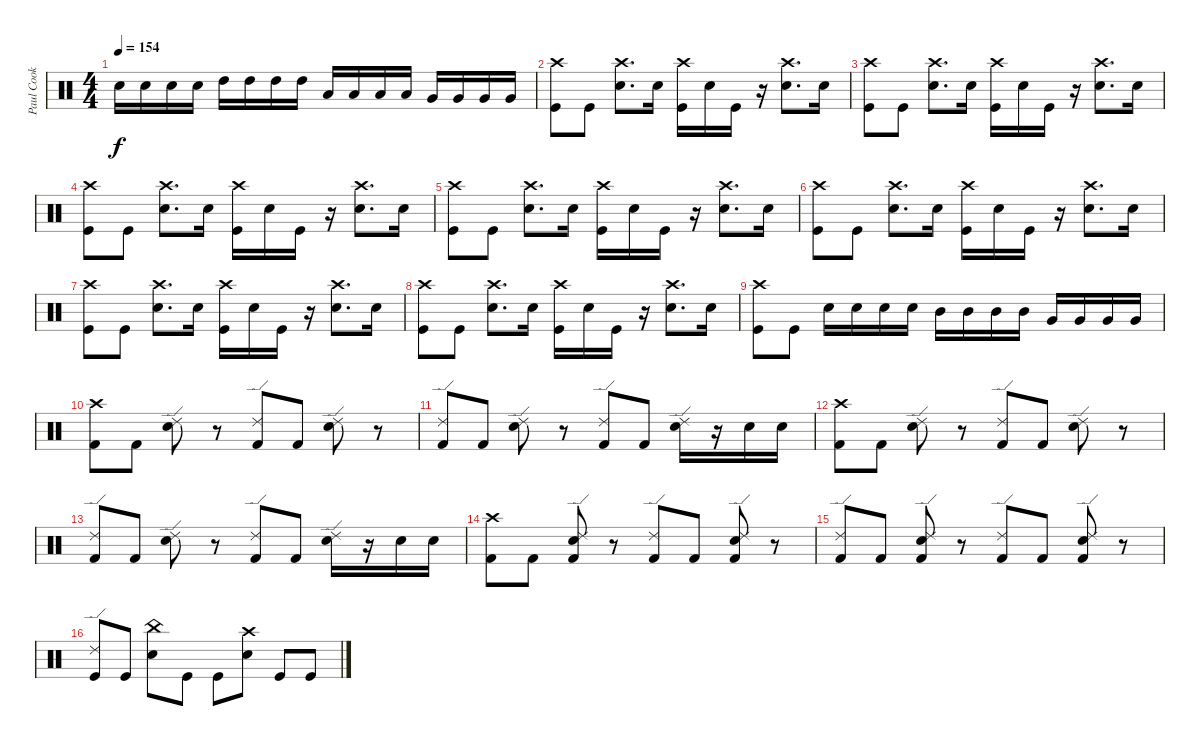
\track ("Paul Cook" "Paul Cook") {instrument percussion}
\staff {score}
\articulation defaults
\ts (4 4)
\tempo 154
\clef neutral
\ks c "Snare (hit) 2".16{dy f} "Snare (hit) 2".16 "Snare (hit) 2".16 "Snare (hit) 2".16 "High Tom (hit)".16 "High Tom (hit)".16 "High Tom (hit)".16 "High Tom (hit)".16 "Low Tom (hit)".16 "Low Tom (hit)".16 "Low Tom (hit)".16 "Low Tom (hit)".16 "Very Low Tom (hit)".16 "Very Low Tom (hit)".16 "Very Low Tom (hit)".16 "Very Low Tom (hit)".16
|
("Crash high (hit)" "Kick (hit)").8 "Kick (hit)".8 ("Crash high (hit)" "Snare (hit) 2").8{d} "Snare (hit) 2".16 ("Crash high (hit)" "Kick (hit)").16 "Snare (hit) 2".16 "Kick (hit)".16 r.16 ("Crash high (hit)" "Snare (hit) 2").8{d} "Snare (hit) 2".16 |
("Crash high (hit)" "Kick (hit)").8 "Kick (hit)".8 ("Crash high (hit)" "Snare (hit) 2").8{d} "Snare (hit) 2".16 ("Crash high (hit)" "Kick (hit)").16 "Snare (hit) 2".16 "Kick (hit)".16 r.16 ("Crash high (hit)" "Snare (hit) 2").8{d} "Snare (hit) 2".16 |
("Crash high (hit)" "Kick (hit)").8 "Kick (hit)".8 ("Crash high (hit)" "Snare (hit) 2").8{d} "Snare (hit) 2".16 ("Crash high (hit)" "Kick (hit)").16 "Snare (hit) 2".16 "Kick (hit)".16 r.16 ("Crash high (hit)" "Snare (hit) 2").8{d} "Snare (hit) 2".16 |
("Crash high (hit)" "Kick (hit)").8 "Kick (hit)".8 ("Crash high (hit)" "Snare (hit) 2").8{d} "Snare (hit) 2".16 ("Crash high (hit)" "Kick (hit)").16 "Snare (hit) 2".16 "Kick (hit)".16 r.16 ("Crash high (hit)" "Snare (hit) 2").8{d} "Snare (hit) 2".16 |
("Crash high (hit)" "Kick (hit)").8 "Kick (hit)".8 ("Crash high (hit)" "Snare (hit) 2").8{d} "Snare (hit) 2".16 ("Crash high (hit)" "Kick (hit)").16 "Snare (hit) 2".16 "Kick (hit)".16 r.16 ("Crash high (hit)" "Snare (hit) 2").8{d} "Snare (hit) 2".16 |
("Crash high (hit)" "Kick (hit)").8 "Kick (hit)".8 ("Crash high (hit)" "Snare (hit) 2").8{d} "Snare (hit) 2".16 ("Crash high (hit)" "Kick (hit)").16 "Snare (hit) 2".16 "Kick (hit)".16 r.16 ("Crash high (hit)" "Snare (hit) 2").8{d} "Snare (hit) 2".16 |
("Crash high (hit)" "Kick (hit)").8 "Kick (hit)".8 ("Crash high (hit)" "Snare (hit) 2").8{d} "Snare (hit) 2".16 ("Crash high (hit)" "Kick (hit)").16 "Snare (hit) 2".16 "Kick (hit)".16 r.16 ("Crash high (hit)" "Snare (hit) 2").8{d} "Snare (hit) 2".16 |
("Crash high (hit)" "Kick (hit)").8 "Kick (hit)".8 "Snare (hit) 2".16 "Snare (hit) 2".16 "Snare (hit) 2".16 "Snare (hit) 2".16 "Mid Tom (hit)".16 "Mid Tom (hit)".16 "Mid Tom (hit)".16 "Mid Tom (hit)".16 "Very Low Tom (hit)".16 "Very Low Tom (hit)".16 "Very Low Tom (hit)".16 "Very Low Tom (hit)".16 |
("Crash high (hit)" "Kick (hit) 2").8 "Kick (hit) 2".8 ("Ride (edge) 2" "Electric Snare (hit)").8 r.8 ("Ride (edge) 2" "Kick (hit) 2").8 "Kick (hit) 2".8 ("Ride (edge) 2" "Electric Snare (hit)").8 r.8 |
("Ride (edge) 2" "Kick (hit) 2").8 "Kick (hit) 2".8 ("Ride (edge) 2" "Electric Snare (hit)").8 r.8 ("Ride (edge) 2" "Kick (hit) 2").8 "Kick (hit) 2".8 ("Ride (edge) 2" "Electric Snare (hit)").16 r.16 "Snare (hit) 2".16 "Snare (hit) 2".16 |
("Crash high (hit)" "Kick (hit) 2").8 "Kick (hit) 2".8 ("Ride (edge) 2" "Electric Snare (hit)").8 r.8 ("Ride (edge) 2" "Kick (hit) 2").8 "Kick (hit) 2".8 ("Ride (edge) 2" "Electric Snare (hit)").8 r.8 |
("Ride (edge) 2" "Kick (hit) 2").8 "Kick (hit) 2".8 ("Ride (edge) 2" "Electric Snare (hit)").8 r.8 ("Ride (edge) 2" "Kick (hit) 2").8 "Kick (hit) 2".8 ("Ride (edge) 2" "Electric Snare (hit)").16 r.16 "Snare (hit) 2".16 "Snare (hit) 2".16 |
("Crash high (hit)" "Kick (hit) 2").8 "Kick (hit) 2".8 ("Ride (edge) 2" "Electric Snare (hit)" "Kick (hit) 2").8 r.8 ("Ride (edge) 2" "Kick (hit) 2").8 "Kick (hit) 2".8 ("Ride (edge) 2" "Electric Snare (hit)" "Kick (hit) 2").8 r.8 |
("Ride (edge) 2" "Kick (hit) 2").8 "Kick (hit) 2".8 ("Ride (edge) 2" "Electric Snare (hit)" "Kick (hit) 2").8 r.8 ("Ride (edge) 2" "Kick (hit) 2").8 "Kick (hit) 2".8 ("Ride (edge) 2" "Electric Snare (hit)" "Kick (hit) 2").8 r.8 |
("Ride (edge) 2" "Kick (hit)").8 "Kick (hit)".8 ("China (hit)" "Snare (hit) 2").8 "Kick (hit)".8 "Kick (hit)".8 ("Crash high (hit)" "Snare (hit) 2").8 "Kick (hit)".8 "Kick (hit)".8
